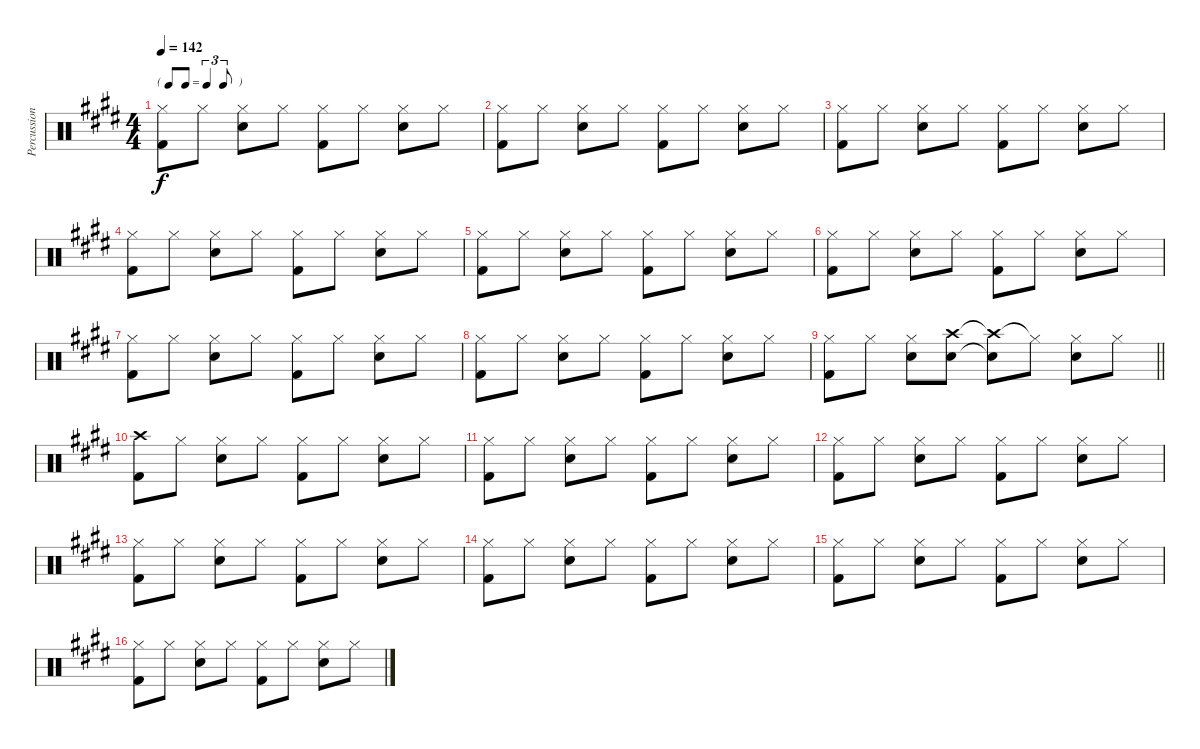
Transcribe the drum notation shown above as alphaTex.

\track ("Percussion" "Percussion") {instrument percussion}
\staff {score}
\articulation defaults
\ts (4 4)
\tf triplet8th
\tempo 142
\clef neutral
\ks e
("Hi-Hat (closed)" "Kick (hit) 2").8{dy f} "Hi-Hat (closed)".8 ("Hi-Hat (closed)" "Snare (hit) 2").8 "Hi-Hat (closed)".8 ("Hi-Hat (closed)" "Kick (hit) 2").8 "Hi-Hat (closed)".8 ("Hi-Hat (closed)" "Snare (hit) 2").8 "Hi-Hat (closed)".8 |
("Hi-Hat (closed)" "Kick (hit) 2").8 "Hi-Hat (closed)".8 ("Hi-Hat (closed)" "Snare (hit) 2").8 "Hi-Hat (closed)".8 ("Hi-Hat (closed)" "Kick (hit) 2").8 "Hi-Hat (closed)".8 ("Hi-Hat (closed)" "Snare (hit) 2").8 "Hi-Hat (closed)".8 |
("Hi-Hat (closed)" "Kick (hit) 2").8 "Hi-Hat (closed)".8 ("Hi-Hat (closed)" "Snare (hit) 2").8 "Hi-Hat (closed)".8 ("Hi-Hat (closed)" "Kick (hit) 2").8 "Hi-Hat (closed)".8 ("Hi-Hat (closed)" "Snare (hit) 2").8 "Hi-Hat (closed)".8 |
("Hi-Hat (closed)" "Kick (hit) 2").8 "Hi-Hat (closed)".8 ("Hi-Hat (closed)" "Snare (hit) 2").8 "Hi-Hat (closed)".8 ("Hi-Hat (closed)" "Kick (hit) 2").8 "Hi-Hat (closed)".8 ("Hi-Hat (closed)" "Snare (hit) 2").8 "Hi-Hat (closed)".8 |
("Hi-Hat (closed)" "Kick (hit) 2").8 "Hi-Hat (closed)".8 ("Hi-Hat (closed)" "Snare (hit) 2").8 "Hi-Hat (closed)".8 ("Hi-Hat (closed)" "Kick (hit) 2").8 "Hi-Hat (closed)".8 ("Hi-Hat (closed)" "Snare (hit) 2").8 "Hi-Hat (closed)".8 |
("Hi-Hat (closed)" "Kick (hit) 2").8 "Hi-Hat (closed)".8 ("Hi-Hat (closed)" "Snare (hit) 2").8 "Hi-Hat (closed)".8 ("Hi-Hat (closed)" "Kick (hit) 2").8 "Hi-Hat (closed)".8 ("Hi-Hat (closed)" "Snare (hit) 2").8 "Hi-Hat (closed)".8 |
("Hi-Hat (closed)" "Kick (hit) 2").8 "Hi-Hat (closed)".8 ("Hi-Hat (closed)" "Snare (hit) 2").8 "Hi-Hat (closed)".8 ("Hi-Hat (closed)" "Kick (hit) 2").8 "Hi-Hat (closed)".8 ("Hi-Hat (closed)" "Snare (hit) 2").8 "Hi-Hat (closed)".8 |
("Hi-Hat (closed)" "Kick (hit) 2").8 "Hi-Hat (closed)".8 ("Hi-Hat (closed)" "Snare (hit) 2").8 "Hi-Hat (closed)".8 ("Hi-Hat (closed)" "Kick (hit) 2").8 "Hi-Hat (closed)".8 ("Hi-Hat (closed)" "Snare (hit) 2").8 "Hi-Hat (closed)".8 |
\barLineRight lightlight
("Hi-Hat (closed)" "Kick (hit) 2").8 "Hi-Hat (closed)".8 ("Hi-Hat (closed)" "Snare (hit) 2").8 ("Crash high (hit)" "Snare (hit) 2").8 ("Crash high (hit)"{t} "Snare (hit) 2"{t}).8 "Hi-Hat (closed)"{t}.8 ("Hi-Hat (closed)" "Snare (hit) 2").8 "Hi-Hat (closed)".8 |
("Crash high (hit)" "Kick (hit) 2").8 "Hi-Hat (closed)".8 ("Hi-Hat (closed)" "Snare (hit) 2").8 "Hi-Hat (closed)".8 ("Hi-Hat (closed)" "Kick (hit) 2").8 "Hi-Hat (closed)".8 ("Hi-Hat (closed)" "Snare (hit) 2").8 "Hi-Hat (closed)".8 |
("Hi-Hat (closed)" "Kick (hit) 2").8 "Hi-Hat (closed)".8 ("Hi-Hat (closed)" "Snare (hit) 2").8 "Hi-Hat (closed)".8 ("Hi-Hat (closed)" "Kick (hit) 2").8 "Hi-Hat (closed)".8 ("Hi-Hat (closed)" "Snare (hit) 2").8 "Hi-Hat (closed)".8 |
("Hi-Hat (closed)" "Kick (hit) 2").8 "Hi-Hat (closed)".8 ("Hi-Hat (closed)" "Snare (hit) 2").8 "Hi-Hat (closed)".8 ("Hi-Hat (closed)" "Kick (hit) 2").8 "Hi-Hat (closed)".8 ("Hi-Hat (closed)" "Snare (hit) 2").8 "Hi-Hat (closed)".8 |
("Hi-Hat (closed)" "Kick (hit) 2").8 "Hi-Hat (closed)".8 ("Hi-Hat (closed)" "Snare (hit) 2").8 "Hi-Hat (closed)".8 ("Hi-Hat (closed)" "Kick (hit) 2").8 "Hi-Hat (closed)".8 ("Hi-Hat (closed)" "Snare (hit) 2").8 "Hi-Hat (closed)".8 |
("Hi-Hat (closed)" "Kick (hit) 2").8 "Hi-Hat (closed)".8 ("Hi-Hat (closed)" "Snare (hit) 2").8 "Hi-Hat (closed)".8 ("Hi-Hat (closed)" "Kick (hit) 2").8 "Hi-Hat (closed)".8 ("Hi-Hat (closed)" "Snare (hit) 2").8 "Hi-Hat (closed)".8 |
("Hi-Hat (closed)" "Kick (hit) 2").8 "Hi-Hat (closed)".8 ("Hi-Hat (closed)" "Snare (hit) 2").8 "Hi-Hat (closed)".8 ("Hi-Hat (closed)" "Kick (hit) 2").8 "Hi-Hat (closed)".8 ("Hi-Hat (closed)" "Snare (hit) 2").8 "Hi-Hat (closed)".8 |
("Hi-Hat (closed)" "Kick (hit) 2").8 "Hi-Hat (closed)".8 ("Hi-Hat (closed)" "Snare (hit) 2").8 "Hi-Hat (closed)".8 ("Hi-Hat (closed)" "Kick (hit) 2").8 "Hi-Hat (closed)".8 ("Hi-Hat (closed)" "Snare (hit) 2").8 "Hi-Hat (closed)".8
